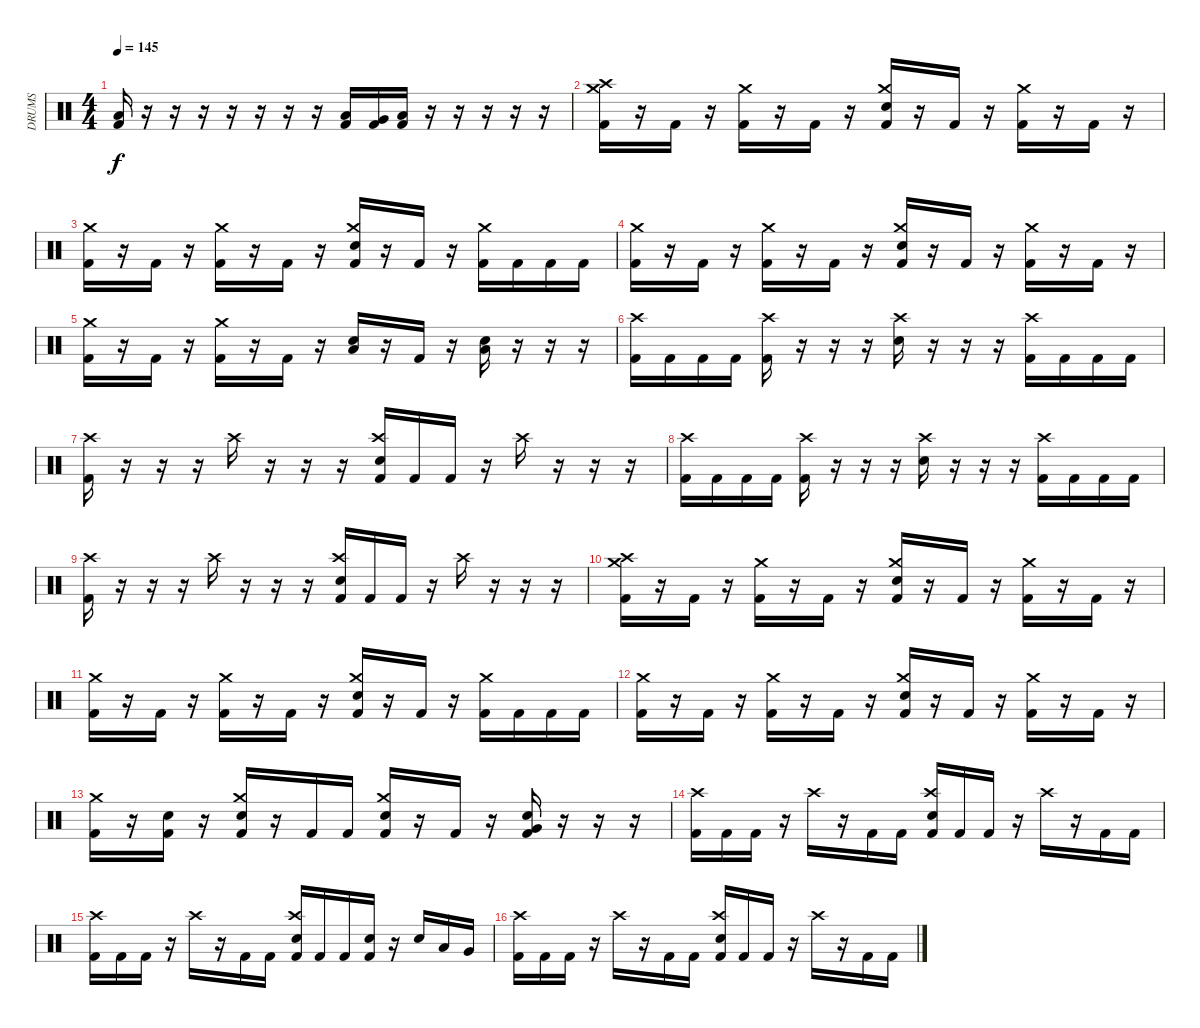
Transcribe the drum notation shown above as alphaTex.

\track ("DRUMS" "DRUMS") {instrument percussion}
\staff {score}
\articulation defaults
\ts (4 4)
\tempo 145
\clef neutral
\ks c
("Low Floor Tom (hit)" "Kick (hit) 2").16{dy f} r.16 r.16 r.16 r.16 r.16 r.16 r.16 ("Low Floor Tom (hit)" "Kick (hit) 2").16 ("Very Low Tom (hit)" "Kick (hit) 2").16 ("Low Floor Tom (hit)" "Kick (hit) 2").16 r.16 r.16 r.16 r.16 r.16 |
("Crash medium (hit)" "Crash high (hit)" "Kick (hit) 2").16 r.16 "Kick (hit) 2".16 r.16 ("Crash medium (hit)" "Kick (hit) 2").16 r.16 "Kick (hit) 2".16 r.16 ("Crash medium (hit)" "Electric Snare (hit)" "Kick (hit) 2").16 r.16 "Kick (hit) 2".16 r.16 ("Crash medium (hit)" "Kick (hit) 2").16 r.16 "Kick (hit) 2".16 r.16 |
("Crash medium (hit)" "Kick (hit) 2").16 r.16 "Kick (hit) 2".16 r.16 ("Crash medium (hit)" "Kick (hit) 2").16 r.16 "Kick (hit) 2".16 r.16 ("Crash medium (hit)" "Electric Snare (hit)" "Kick (hit) 2").16 r.16 "Kick (hit) 2".16 r.16 ("Crash medium (hit)" "Kick (hit) 2").16 "Kick (hit) 2".16 "Kick (hit) 2".16 "Kick (hit) 2".16 |
("Crash medium (hit)" "Kick (hit) 2").16 r.16 "Kick (hit) 2".16 r.16 ("Crash medium (hit)" "Kick (hit) 2").16 r.16 "Kick (hit) 2".16 r.16 ("Crash medium (hit)" "Electric Snare (hit)" "Kick (hit) 2").16 r.16 "Kick (hit) 2".16 r.16 ("Crash medium (hit)" "Kick (hit) 2").16 r.16 "Kick (hit) 2".16 r.16 |
("Crash medium (hit)" "Kick (hit) 2").16 r.16 "Kick (hit) 2".16 r.16 ("Crash medium (hit)" "Kick (hit) 2").16 r.16 "Kick (hit) 2".16 r.16 ("Low Floor Tom (hit)" "Electric Snare (hit)").16 r.16 "Kick (hit) 2".16 r.16 ("Low Floor Tom (hit)" "Electric Snare (hit)").16 r.16 r.16 r.16 |
("Crash high (hit)" "Kick (hit) 2").16 "Kick (hit) 2".16 "Kick (hit) 2".16 "Kick (hit) 2".16 ("Crash high (hit)" "Kick (hit) 2").16 r.16 r.16 r.16 ("Crash high (hit)" "Electric Snare (hit)").16 r.16 r.16 r.16 ("Crash high (hit)" "Kick (hit) 2").16 "Kick (hit) 2".16 "Kick (hit) 2".16 "Kick (hit) 2".16 |
("Crash high (hit)" "Kick (hit) 2").16 r.16 r.16 r.16 "Crash high (hit)".16 r.16 r.16 r.16 ("Crash high (hit)" "Electric Snare (hit)" "Kick (hit) 2").16 "Kick (hit) 2".16 "Kick (hit) 2".16 r.16 "Crash high (hit)".16 r.16 r.16 r.16 |
("Crash high (hit)" "Kick (hit) 2").16 "Kick (hit) 2".16 "Kick (hit) 2".16 "Kick (hit) 2".16 ("Crash high (hit)" "Kick (hit) 2").16 r.16 r.16 r.16 ("Crash high (hit)" "Electric Snare (hit)").16 r.16 r.16 r.16 ("Crash high (hit)" "Kick (hit) 2").16 "Kick (hit) 2".16 "Kick (hit) 2".16 "Kick (hit) 2".16 |
("Crash high (hit)" "Kick (hit) 2").16 r.16 r.16 r.16 "Crash high (hit)".16 r.16 r.16 r.16 ("Crash high (hit)" "Electric Snare (hit)" "Kick (hit) 2").16 "Kick (hit) 2".16 "Kick (hit) 2".16 r.16 "Crash high (hit)".16 r.16 r.16 r.16 |
("Crash medium (hit)" "Crash high (hit)" "Kick (hit) 2").16 r.16 "Kick (hit) 2".16 r.16 ("Crash medium (hit)" "Kick (hit) 2").16 r.16 "Kick (hit) 2".16 r.16 ("Crash medium (hit)" "Electric Snare (hit)" "Kick (hit) 2").16 r.16 "Kick (hit) 2".16 r.16 ("Crash medium (hit)" "Kick (hit) 2").16 r.16 "Kick (hit) 2".16 r.16 |
("Crash medium (hit)" "Kick (hit) 2").16 r.16 "Kick (hit) 2".16 r.16 ("Crash medium (hit)" "Kick (hit) 2").16 r.16 "Kick (hit) 2".16 r.16 ("Crash medium (hit)" "Electric Snare (hit)" "Kick (hit) 2").16 r.16 "Kick (hit) 2".16 r.16 ("Crash medium (hit)" "Kick (hit) 2").16 "Kick (hit) 2".16 "Kick (hit) 2".16 "Kick (hit) 2".16 |
("Crash medium (hit)" "Kick (hit) 2").16 r.16 "Kick (hit) 2".16 r.16 ("Crash medium (hit)" "Kick (hit) 2").16 r.16 "Kick (hit) 2".16 r.16 ("Crash medium (hit)" "Electric Snare (hit)" "Kick (hit) 2").16 r.16 "Kick (hit) 2".16 r.16 ("Crash medium (hit)" "Kick (hit) 2").16 r.16 "Kick (hit) 2".16 r.16 |
("Crash medium (hit)" "Kick (hit) 2").16 r.16 ("Electric Snare (hit)" "Kick (hit) 2").16 r.16 ("Crash medium (hit)" "Electric Snare (hit)" "Kick (hit) 2").16 r.16 "Kick (hit) 2".16 "Kick (hit) 2".16 ("Crash medium (hit)" "Electric Snare (hit)" "Kick (hit) 2").16 r.16 "Kick (hit) 2".16 r.16 ("Very Low Tom (hit)" "Electric Snare (hit)" "Kick (hit) 2").16 r.16 r.16 r.16 |
("Crash high (hit)" "Kick (hit) 2").16 "Kick (hit) 2".16 "Kick (hit) 2".16 r.16 "Crash high (hit)".16 r.16 "Kick (hit) 2".16 "Kick (hit) 2".16 ("Crash high (hit)" "Electric Snare (hit)" "Kick (hit) 2").16 "Kick (hit) 2".16 "Kick (hit) 2".16 r.16 "Crash high (hit)".16 r.16 "Kick (hit) 2".16 "Kick (hit) 2".16 |
("Crash high (hit)" "Kick (hit) 2").16 "Kick (hit) 2".16 "Kick (hit) 2".16 r.16 "Crash high (hit)".16 r.16 "Kick (hit) 2".16 "Kick (hit) 2".16 ("Crash high (hit)" "Electric Snare (hit)" "Kick (hit) 2").16 "Kick (hit) 2".16 "Kick (hit) 2".16 ("Electric Snare (hit)" "Kick (hit) 2").16 r.16 "Electric Snare (hit)".16 "Low Tom (hit)".16 "Very Low Tom (hit)".16 |
("Crash high (hit)" "Kick (hit) 2").16 "Kick (hit) 2".16 "Kick (hit) 2".16 r.16 "Crash high (hit)".16 r.16 "Kick (hit) 2".16 "Kick (hit) 2".16 ("Crash high (hit)" "Electric Snare (hit)" "Kick (hit) 2").16 "Kick (hit) 2".16 "Kick (hit) 2".16 r.16 "Crash high (hit)".16 r.16 "Kick (hit) 2".16 "Kick (hit) 2".16
